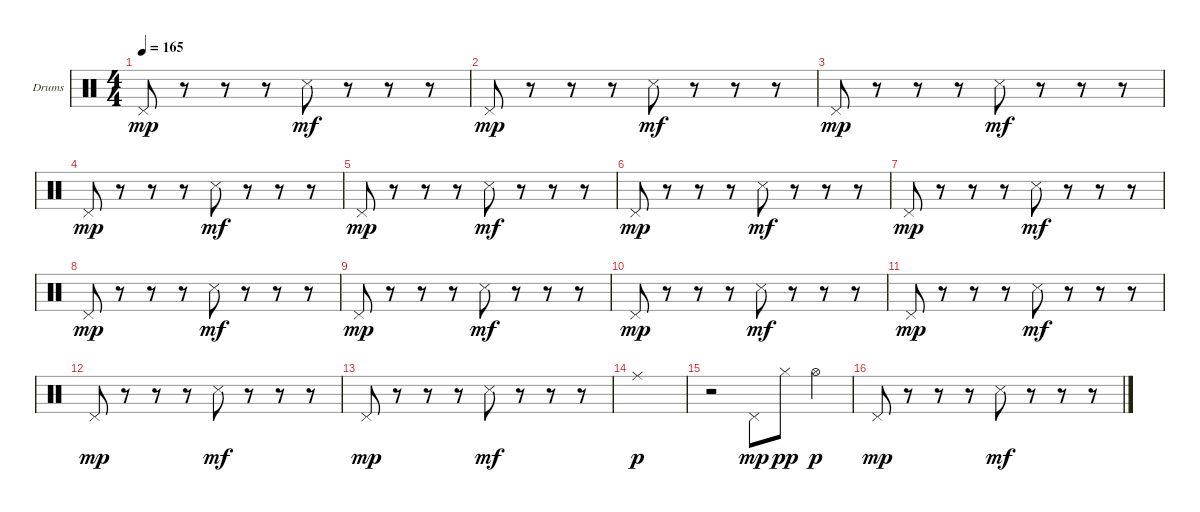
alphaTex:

\defaultSystemsLayout 4
\bracketExtendMode groupsimilarinstruments
\firstSystemTrackNameOrientation horizontal
\otherSystemsTrackNameOrientation horizontal
\track ("Drumkit" "Drums") {instrument percussion}
\staff {score}
\articulation defaults
\ts (4 4)
\tempo 165
\clef neutral
\ks c "Pedal Hi-Hat (hit)".8{dy mp}
r.8 r.8 r.8 "Snare (side stick) 3".8{dy mf} r.8 r.8 r.8 |
"Pedal Hi-Hat (hit)".8{dy mp} r.8 r.8 r.8 "Snare (side stick) 3".8{dy mf} r.8 r.8 r.8 |
"Pedal Hi-Hat (hit)".8{dy mp} r.8 r.8 r.8 "Snare (side stick) 3".8{dy mf} r.8 r.8 r.8 |
"Pedal Hi-Hat (hit)".8{dy mp} r.8 r.8 r.8 "Snare (side stick) 3".8{dy mf} r.8 r.8 r.8 |
"Pedal Hi-Hat (hit)".8{dy mp} r.8 r.8 r.8 "Snare (side stick) 3".8{dy mf} r.8 r.8 r.8 |
"Pedal Hi-Hat (hit)".8{dy mp} r.8 r.8 r.8 "Snare (side stick) 3".8{dy mf} r.8 r.8 r.8 |
"Pedal Hi-Hat (hit)".8{dy mp} r.8 r.8 r.8 "Snare (side stick) 3".8{dy mf} r.8 r.8 r.8 |
"Pedal Hi-Hat (hit)".8{dy mp} r.8 r.8 r.8 "Snare (side stick) 3".8{dy mf} r.8 r.8 r.8 |
"Pedal Hi-Hat (hit)".8{dy mp} r.8 r.8 r.8 "Snare (side stick) 3".8{dy mf} r.8 r.8 r.8 |
"Pedal Hi-Hat (hit)".8{dy mp} r.8 r.8 r.8 "Snare (side stick) 3".8{dy mf} r.8 r.8 r.8 |
"Pedal Hi-Hat (hit)".8{dy mp} r.8 r.8 r.8 "Snare (side stick) 3".8{dy mf} r.8 r.8 r.8 |
"Pedal Hi-Hat (hit)".8{dy mp} r.8 r.8 r.8 "Snare (side stick) 3".8{dy mf} r.8 r.8 r.8 |
"Pedal Hi-Hat (hit)".8{dy mp} r.8 r.8 r.8 "Snare (side stick) 3".8{dy mf} r.8 r.8 r.8 |
"Ride (middle)".1{dy p} |
r.2 "Pedal Hi-Hat (hit)".8{dy mp} "Hi-Hat (closed)".8{dy pp} "Hi-Hat (open)".4{dy p} |
"Pedal Hi-Hat (hit)".8{dy mp} r.8 r.8 r.8 "Snare (side stick) 3".8{dy mf} r.8 r.8 r.8
